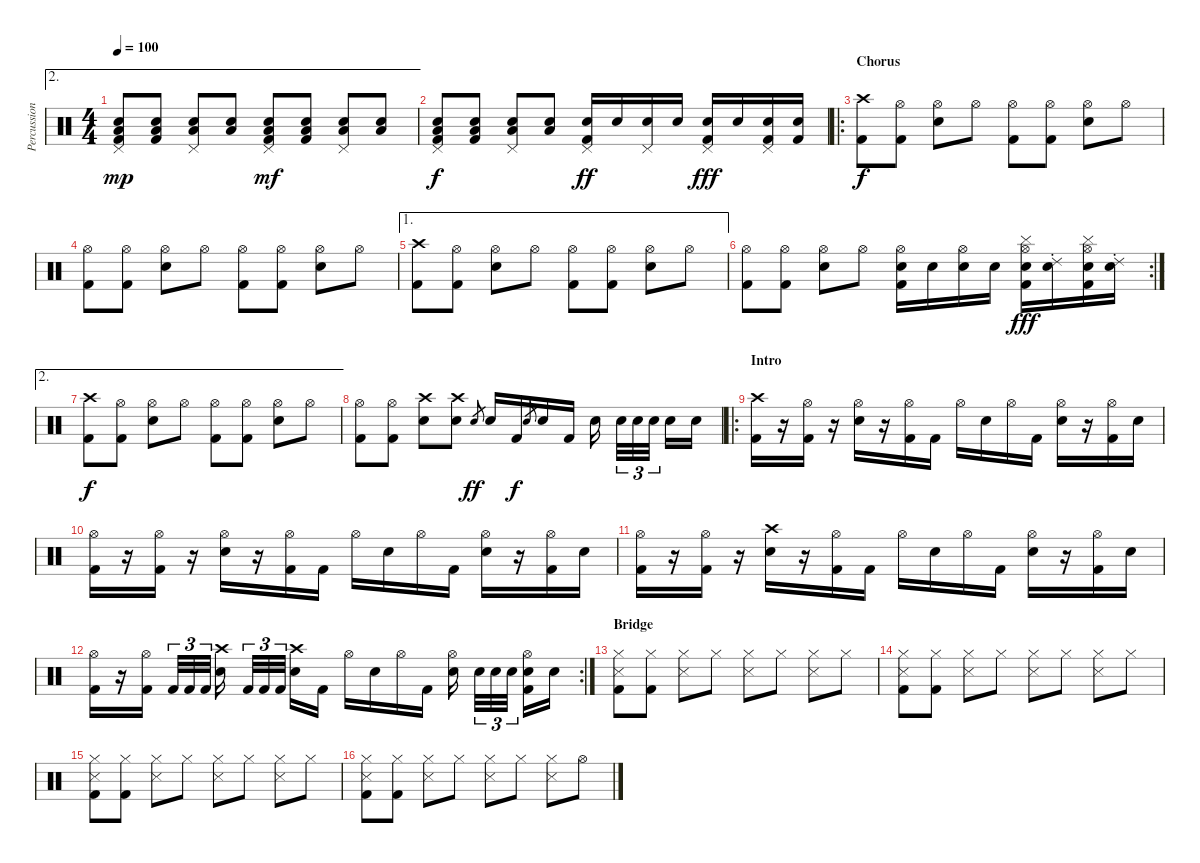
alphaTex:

\track ("Percussion" "Percussion") {instrument percussion}
\staff {score}
\articulation defaults
\ae 2
\ts (4 4)
\tempo 100
\clef neutral
\ks c
("Pedal Hi-Hat (hit)" "Low Tom (hit)" "Electric Snare (hit)" "Kick (hit) 2").8{dy mp} ("Low Tom (hit)" "Electric Snare (hit)" "Kick (hit) 2").8 ("Pedal Hi-Hat (hit)" "Low Tom (hit)" "Electric Snare (hit)").8 ("Low Tom (hit)" "Electric Snare (hit)").8 ("Pedal Hi-Hat (hit)" "Low Tom (hit)" "Electric Snare (hit)" "Kick (hit) 2").8{dy mf} ("Low Tom (hit)" "Electric Snare (hit)" "Kick (hit) 2").8 ("Pedal Hi-Hat (hit)" "Low Tom (hit)" "Electric Snare (hit)").8 ("Low Tom (hit)" "Electric Snare (hit)").8 |
("Pedal Hi-Hat (hit)" "Low Tom (hit)" "Electric Snare (hit)" "Kick (hit) 2").8{dy f} ("Low Tom (hit)" "Electric Snare (hit)" "Kick (hit) 2").8 ("Pedal Hi-Hat (hit)" "Low Tom (hit)" "Electric Snare (hit)").8 ("Low Tom (hit)" "Electric Snare (hit)").8 ("Pedal Hi-Hat (hit)" "Electric Snare (hit)" "Kick (hit) 2").16{dy ff} "Electric Snare (hit)".16 ("Pedal Hi-Hat (hit)" "Electric Snare (hit)").16 "Electric Snare (hit)".16 ("Pedal Hi-Hat (hit)" "Electric Snare (hit)" "Kick (hit) 2").16{dy fff} "Electric Snare (hit)".16 ("Pedal Hi-Hat (hit)" "Electric Snare (hit)" "Kick (hit) 2").16 ("Electric Snare (hit)" "Kick (hit) 2").16 |
\ro
\section ("" "Chorus")
("Crash high (hit)" "Kick (hit) 2").8{dy f} ("Hi-Hat (open)" "Kick (hit) 2").8 ("Hi-Hat (open)" "Electric Snare (hit)").8 "Hi-Hat (open)".8 ("Hi-Hat (open)" "Kick (hit) 2").8 ("Hi-Hat (open)" "Kick (hit) 2").8 ("Hi-Hat (open)" "Electric Snare (hit)").8 "Hi-Hat (open)".8 |
("Hi-Hat (open)" "Kick (hit) 2").8 ("Hi-Hat (open)" "Kick (hit) 2").8 ("Hi-Hat (open)" "Electric Snare (hit)").8 "Hi-Hat (open)".8 ("Hi-Hat (open)" "Kick (hit) 2").8 ("Hi-Hat (open)" "Kick (hit) 2").8 ("Hi-Hat (open)" "Electric Snare (hit)").8 "Hi-Hat (open)".8 |
\ae 1
("Crash high (hit)" "Kick (hit) 2").8 ("Hi-Hat (open)" "Kick (hit) 2").8 ("Hi-Hat (open)" "Electric Snare (hit)").8 "Hi-Hat (open)".8 ("Hi-Hat (open)" "Kick (hit) 2").8 ("Hi-Hat (open)" "Kick (hit) 2").8 ("Hi-Hat (open)" "Electric Snare (hit)").8 "Hi-Hat (open)".8 |
\rc 2
("Hi-Hat (open)" "Kick (hit) 2").8 ("Hi-Hat (open)" "Kick (hit) 2").8 ("Hi-Hat (open)" "Electric Snare (hit)").8 "Hi-Hat (open)".8 ("Hi-Hat (open)" "Electric Snare (hit)" "Kick (hit) 2").16 "Electric Snare (hit)".16 ("Hi-Hat (open)" "Electric Snare (hit)").16 "Electric Snare (hit)".16 ("Hi-Hat (open)" "Electric Snare (hit)" "Kick (hit) 2" "Cymbal (hit)").16{dy fff} ("Electric Snare (hit)" "Ride (choke) 2").16 ("Hi-Hat (open)" "Electric Snare (hit)" "Kick (hit) 2" "Cymbal (hit)").16 ("Electric Snare (hit)" "Ride (choke) 2").16 |
\ae 2
("Crash high (hit)" "Kick (hit) 2").8{dy f} ("Hi-Hat (open)" "Kick (hit) 2").8 ("Hi-Hat (open)" "Electric Snare (hit)").8 "Hi-Hat (open)".8 ("Hi-Hat (open)" "Kick (hit) 2").8 ("Hi-Hat (open)" "Kick (hit) 2").8 ("Hi-Hat (open)" "Electric Snare (hit)").8 "Hi-Hat (open)".8 |
("Hi-Hat (open)" "Kick (hit) 2").8 ("Hi-Hat (open)" "Kick (hit) 2").8 ("Crash high (hit)" "Electric Snare (hit)").8 ("Crash high (hit)" "Electric Snare (hit)").8 "Electric Snare (hit)".8{gr dy ff} "Electric Snare (hit)".16 "Kick (hit) 2".16{dy f} "Electric Snare (hit)".8{gr} "Electric Snare (hit)".16 "Kick (hit) 2".16 "Electric Snare (hit)".16 "Electric Snare (hit)".32{tu (3 2)} "Electric Snare (hit)".32{tu (3 2)} "Electric Snare (hit)".32{tu (3 2)} "Electric Snare (hit)".16 "Electric Snare (hit)".16 |
\ro
\section ("" "Intro")
("Crash high (hit)" "Kick (hit) 2").16 r.16 ("Hi-Hat (open)" "Kick (hit) 2").16 r.16 ("Hi-Hat (open)" "Electric Snare (hit)").16 r.16 ("Hi-Hat (open)" "Kick (hit) 2").16 "Kick (hit) 2".16 "Hi-Hat (open)".16 "Electric Snare (hit)".16 "Hi-Hat (open)".16 "Kick (hit) 2".16 ("Hi-Hat (open)" "Electric Snare (hit)").16 r.16 ("Hi-Hat (open)" "Kick (hit) 2").16 "Electric Snare (hit)".16 |
("Hi-Hat (open)" "Kick (hit) 2").16 r.16 ("Hi-Hat (open)" "Kick (hit) 2").16 r.16 ("Hi-Hat (open)" "Electric Snare (hit)").16 r.16 ("Hi-Hat (open)" "Kick (hit) 2").16 "Kick (hit) 2".16 "Hi-Hat (open)".16 "Electric Snare (hit)".16 "Hi-Hat (open)".16 "Kick (hit) 2".16 ("Hi-Hat (open)" "Electric Snare (hit)").16 r.16 ("Hi-Hat (open)" "Kick (hit) 2").16 "Electric Snare (hit)".16 |
("Hi-Hat (open)" "Kick (hit) 2").16 r.16 ("Hi-Hat (open)" "Kick (hit) 2").16 r.16 ("Crash high (hit)" "Electric Snare (hit)").16 r.16 ("Hi-Hat (open)" "Kick (hit) 2").16 "Kick (hit) 2".16 "Hi-Hat (open)".16 "Electric Snare (hit)".16 "Hi-Hat (open)".16 "Kick (hit) 2".16 ("Hi-Hat (open)" "Electric Snare (hit)").16 r.16 ("Hi-Hat (open)" "Kick (hit) 2").16 "Electric Snare (hit)".16 |
\rc 2
("Hi-Hat (open)" "Kick (hit) 2").16 r.16 ("Hi-Hat (open)" "Kick (hit) 2").16 "Kick (hit) 2".32{tu (3 2)} "Kick (hit) 2".32{tu (3 2)} "Kick (hit) 2".32{tu (3 2)} ("Crash high (hit)" "Electric Snare (hit)").16 "Kick (hit) 2".32{tu (3 2)} "Kick (hit) 2".32{tu (3 2)} "Kick (hit) 2".32{tu (3 2)} ("Crash high (hit)" "Electric Snare (hit)").16 "Kick (hit) 2".16 "Hi-Hat (open)".16 "Electric Snare (hit)".16 "Hi-Hat (open)".16 "Kick (hit) 2".16 ("Hi-Hat (open)" "Electric Snare (hit)").16 "Electric Snare (hit)".32{tu (3 2)} "Electric Snare (hit)".32{tu (3 2)} "Electric Snare (hit)".32{tu (3 2)} ("Hi-Hat (open)" "Electric Snare (hit)" "Kick (hit) 2").16 "Electric Snare (hit)".16 |
\section ("" "Bridge")
("Hi-Hat (closed)" "Snare (side stick) 3" "Kick (hit) 2").8 ("Hi-Hat (closed)" "Kick (hit) 2").8 ("Hi-Hat (closed)" "Snare (side stick) 3").8 "Hi-Hat (closed)".8 ("Hi-Hat (closed)" "Snare (side stick) 3").8 "Hi-Hat (closed)".8 ("Hi-Hat (closed)" "Snare (side stick) 3").8 "Hi-Hat (closed)".8 |
("Hi-Hat (closed)" "Snare (side stick) 3" "Kick (hit) 2").8 ("Hi-Hat (closed)" "Kick (hit) 2").8 ("Hi-Hat (closed)" "Snare (side stick) 3").8 "Hi-Hat (closed)".8 ("Hi-Hat (closed)" "Snare (side stick) 3").8 "Hi-Hat (closed)".8 ("Hi-Hat (closed)" "Snare (side stick) 3").8 "Hi-Hat (closed)".8 |
("Hi-Hat (closed)" "Snare (side stick) 3" "Kick (hit) 2").8 ("Hi-Hat (closed)" "Kick (hit) 2").8 ("Hi-Hat (closed)" "Snare (side stick) 3").8 "Hi-Hat (closed)".8 ("Hi-Hat (closed)" "Snare (side stick) 3").8 "Hi-Hat (closed)".8 ("Hi-Hat (closed)" "Snare (side stick) 3").8 "Hi-Hat (closed)".8 |
("Hi-Hat (closed)" "Snare (side stick) 3" "Kick (hit) 2").8 ("Hi-Hat (closed)" "Kick (hit) 2").8 ("Hi-Hat (closed)" "Snare (side stick) 3").8 "Hi-Hat (closed)".8 ("Hi-Hat (closed)" "Snare (side stick) 3").8 "Hi-Hat (closed)".8 ("Hi-Hat (closed)" "Snare (side stick) 3").8 "Hi-Hat (open)".8
